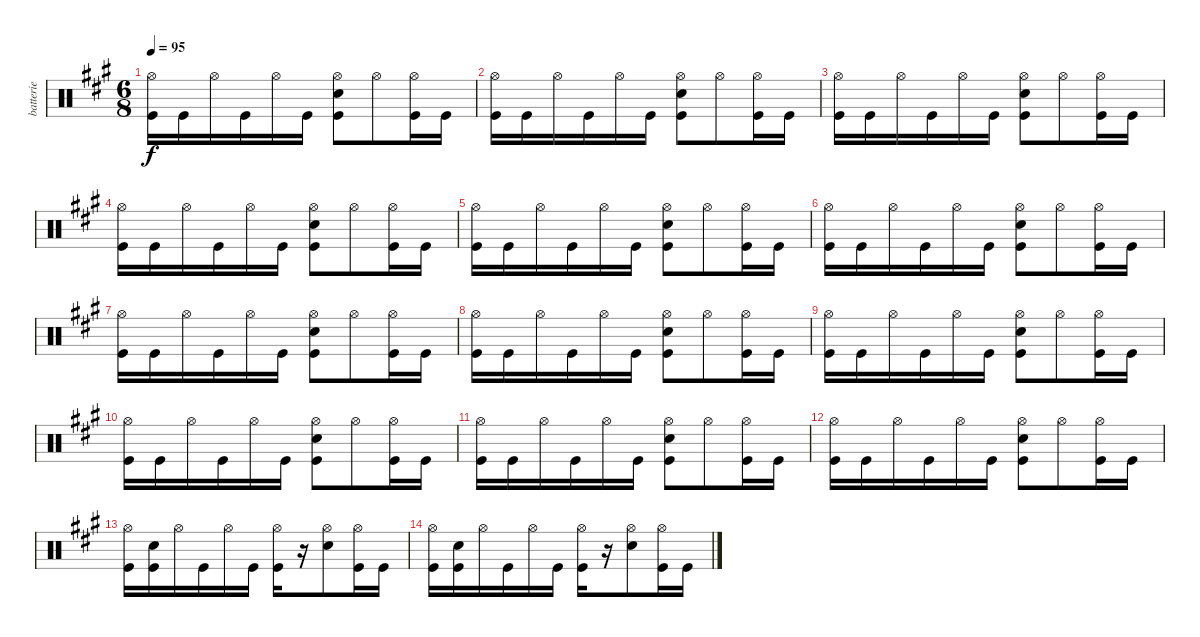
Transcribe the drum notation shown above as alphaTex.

\track ("batterie" "batterie") {instrument percussion}
\staff {score}
\articulation defaults
\ts (6 8)
\tempo 95
\clef neutral
\ks a
("Hi-Hat (open)" "Kick (hit)").16{dy f} "Kick (hit)".16 "Hi-Hat (open)".16 "Kick (hit)".16 "Hi-Hat (open)".16 "Kick (hit)".16 ("Hi-Hat (open)" "Electric Snare (hit)" "Kick (hit)").8 "Hi-Hat (open)".8 ("Hi-Hat (open)" "Kick (hit)").16 "Kick (hit)".16 |
("Hi-Hat (open)" "Kick (hit)").16 "Kick (hit)".16 "Hi-Hat (open)".16 "Kick (hit)".16 "Hi-Hat (open)".16 "Kick (hit)".16 ("Hi-Hat (open)" "Electric Snare (hit)" "Kick (hit)").8 "Hi-Hat (open)".8 ("Hi-Hat (open)" "Kick (hit)").16 "Kick (hit)".16 |
("Hi-Hat (open)" "Kick (hit)").16 "Kick (hit)".16 "Hi-Hat (open)".16 "Kick (hit)".16 "Hi-Hat (open)".16 "Kick (hit)".16 ("Hi-Hat (open)" "Electric Snare (hit)" "Kick (hit)").8 "Hi-Hat (open)".8 ("Hi-Hat (open)" "Kick (hit)").16 "Kick (hit)".16 |
("Hi-Hat (open)" "Kick (hit)").16 "Kick (hit)".16 "Hi-Hat (open)".16 "Kick (hit)".16 "Hi-Hat (open)".16 "Kick (hit)".16 ("Hi-Hat (open)" "Electric Snare (hit)" "Kick (hit)").8 "Hi-Hat (open)".8 ("Hi-Hat (open)" "Kick (hit)").16 "Kick (hit)".16 |
("Hi-Hat (open)" "Kick (hit)").16 "Kick (hit)".16 "Hi-Hat (open)".16 "Kick (hit)".16 "Hi-Hat (open)".16 "Kick (hit)".16 ("Hi-Hat (open)" "Electric Snare (hit)" "Kick (hit)").8 "Hi-Hat (open)".8 ("Hi-Hat (open)" "Kick (hit)").16 "Kick (hit)".16 |
("Hi-Hat (open)" "Kick (hit)").16 "Kick (hit)".16 "Hi-Hat (open)".16 "Kick (hit)".16 "Hi-Hat (open)".16 "Kick (hit)".16 ("Hi-Hat (open)" "Electric Snare (hit)" "Kick (hit)").8 "Hi-Hat (open)".8 ("Hi-Hat (open)" "Kick (hit)").16 "Kick (hit)".16 |
("Hi-Hat (open)" "Kick (hit)").16 "Kick (hit)".16 "Hi-Hat (open)".16 "Kick (hit)".16 "Hi-Hat (open)".16 "Kick (hit)".16 ("Hi-Hat (open)" "Electric Snare (hit)" "Kick (hit)").8 "Hi-Hat (open)".8 ("Hi-Hat (open)" "Kick (hit)").16 "Kick (hit)".16 |
("Hi-Hat (open)" "Kick (hit)").16 "Kick (hit)".16 "Hi-Hat (open)".16 "Kick (hit)".16 "Hi-Hat (open)".16 "Kick (hit)".16 ("Hi-Hat (open)" "Electric Snare (hit)" "Kick (hit)").8 "Hi-Hat (open)".8 ("Hi-Hat (open)" "Kick (hit)").16 "Kick (hit)".16 |
("Hi-Hat (open)" "Kick (hit)").16 "Kick (hit)".16 "Hi-Hat (open)".16 "Kick (hit)".16 "Hi-Hat (open)".16 "Kick (hit)".16 ("Hi-Hat (open)" "Electric Snare (hit)" "Kick (hit)").8 "Hi-Hat (open)".8 ("Hi-Hat (open)" "Kick (hit)").16 "Kick (hit)".16 |
("Hi-Hat (open)" "Kick (hit)").16 "Kick (hit)".16 "Hi-Hat (open)".16 "Kick (hit)".16 "Hi-Hat (open)".16 "Kick (hit)".16 ("Hi-Hat (open)" "Electric Snare (hit)" "Kick (hit)").8 "Hi-Hat (open)".8 ("Hi-Hat (open)" "Kick (hit)").16 "Kick (hit)".16 |
("Hi-Hat (open)" "Kick (hit)").16 "Kick (hit)".16 "Hi-Hat (open)".16 "Kick (hit)".16 "Hi-Hat (open)".16 "Kick (hit)".16 ("Hi-Hat (open)" "Electric Snare (hit)" "Kick (hit)").8 "Hi-Hat (open)".8 ("Hi-Hat (open)" "Kick (hit)").16 "Kick (hit)".16 |
("Hi-Hat (open)" "Kick (hit)").16 "Kick (hit)".16 "Hi-Hat (open)".16 "Kick (hit)".16 "Hi-Hat (open)".16 "Kick (hit)".16 ("Hi-Hat (open)" "Electric Snare (hit)" "Kick (hit)").8 "Hi-Hat (open)".8 ("Hi-Hat (open)" "Kick (hit)").16 "Kick (hit)".16 |
("Hi-Hat (open)" "Kick (hit)").16 ("Electric Snare (hit)" "Kick (hit)").16 "Hi-Hat (open)".16 "Kick (hit)".16 "Hi-Hat (open)".16 "Kick (hit)".16 ("Hi-Hat (open)" "Kick (hit)").16 r.16 ("Hi-Hat (open)" "Electric Snare (hit)").8 ("Hi-Hat (open)" "Kick (hit)").16 "Kick (hit)".16 |
("Hi-Hat (open)" "Kick (hit)").16 ("Electric Snare (hit)" "Kick (hit)").16 "Hi-Hat (open)".16 "Kick (hit)".16 "Hi-Hat (open)".16 "Kick (hit)".16 ("Hi-Hat (open)" "Kick (hit)").16 r.16 ("Hi-Hat (open)" "Electric Snare (hit)").8 ("Hi-Hat (open)" "Kick (hit)").16 "Kick (hit)".16
